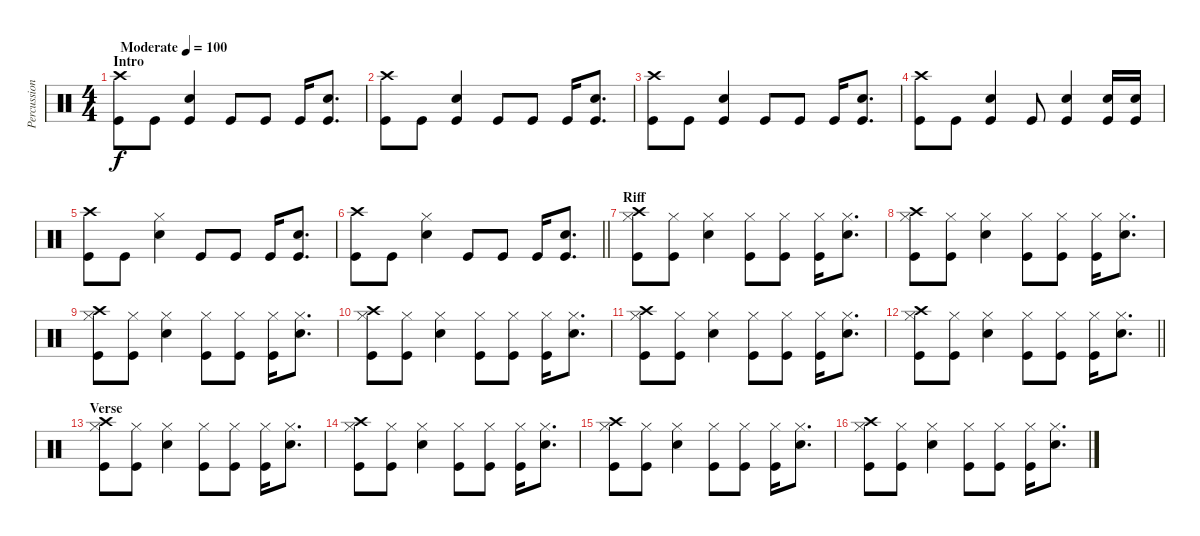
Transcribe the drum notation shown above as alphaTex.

\track ("Percussion" "Percussion") {instrument percussion}
\staff {score}
\articulation defaults
\ts (4 4)
\section ("" "Intro")
\tempo (100 "Moderate")
\clef neutral
\ks c
("Crash high (hit)" "Kick (hit)").8{dy f} "Kick (hit)".8 ("Snare (hit) 2" "Kick (hit)").4 "Kick (hit)".8 "Kick (hit)".8 "Kick (hit)".16 ("Snare (hit) 2" "Kick (hit)").8{d} |
("Crash high (hit)" "Kick (hit)").8 "Kick (hit)".8 ("Snare (hit) 2" "Kick (hit)").4 "Kick (hit)".8 "Kick (hit)".8 "Kick (hit)".16 ("Snare (hit) 2" "Kick (hit)").8{d} |
("Crash high (hit)" "Kick (hit)").8 "Kick (hit)".8 ("Snare (hit) 2" "Kick (hit)").4 "Kick (hit)".8 "Kick (hit)".8 "Kick (hit)".16 ("Snare (hit) 2" "Kick (hit)").8{d} |
("Crash high (hit)" "Kick (hit)").8 "Kick (hit)".8 ("Snare (hit) 2" "Kick (hit)").4 "Kick (hit)".8 ("Snare (hit) 2" "Kick (hit)").4 ("Snare (hit) 2" "Kick (hit)").16 ("Snare (hit) 2" "Kick (hit)").16 |
("Crash high (hit)" "Kick (hit)").8 "Kick (hit)".8 ("Snare (hit) 2" "Hi-Hat (closed)").4 "Kick (hit)".8 "Kick (hit)".8 "Kick (hit)".16 ("Snare (hit) 2" "Kick (hit)").8{d} |
\barLineRight lightlight
("Crash high (hit)" "Kick (hit)").8 "Kick (hit)".8 ("Snare (hit) 2" "Hi-Hat (closed)").4 "Kick (hit)".8 "Kick (hit)".8 "Kick (hit)".16 ("Snare (hit) 2" "Kick (hit)").8{d} |
\section ("" "Riff")
("Crash high (hit)" "Kick (hit)" "Hi-Hat (closed)").8 ("Kick (hit)" "Hi-Hat (closed)").8 ("Snare (hit) 2" "Hi-Hat (closed)").4 ("Kick (hit)" "Hi-Hat (closed)").8 ("Kick (hit)" "Hi-Hat (closed)").8 ("Kick (hit)" "Hi-Hat (closed)").16 ("Snare (hit) 2" "Hi-Hat (closed)").8{d} |
("Crash high (hit)" "Kick (hit)" "Hi-Hat (closed)").8 ("Kick (hit)" "Hi-Hat (closed)").8 ("Snare (hit) 2" "Hi-Hat (closed)").4 ("Kick (hit)" "Hi-Hat (closed)").8 ("Kick (hit)" "Hi-Hat (closed)").8 ("Kick (hit)" "Hi-Hat (closed)").16 ("Snare (hit) 2" "Hi-Hat (closed)").8{d} |
("Crash high (hit)" "Kick (hit)" "Hi-Hat (closed)").8 ("Kick (hit)" "Hi-Hat (closed)").8 ("Snare (hit) 2" "Hi-Hat (closed)").4 ("Kick (hit)" "Hi-Hat (closed)").8 ("Kick (hit)" "Hi-Hat (closed)").8 ("Kick (hit)" "Hi-Hat (closed)").16 ("Snare (hit) 2" "Hi-Hat (closed)").8{d} |
("Crash high (hit)" "Kick (hit)" "Hi-Hat (closed)").8 ("Kick (hit)" "Hi-Hat (closed)").8 ("Snare (hit) 2" "Hi-Hat (closed)").4 ("Kick (hit)" "Hi-Hat (closed)").8 ("Kick (hit)" "Hi-Hat (closed)").8 ("Kick (hit)" "Hi-Hat (closed)").16 ("Snare (hit) 2" "Hi-Hat (closed)").8{d} |
("Crash high (hit)" "Kick (hit)" "Hi-Hat (closed)").8 ("Kick (hit)" "Hi-Hat (closed)").8 ("Snare (hit) 2" "Hi-Hat (closed)").4 ("Kick (hit)" "Hi-Hat (closed)").8 ("Kick (hit)" "Hi-Hat (closed)").8 ("Kick (hit)" "Hi-Hat (closed)").16 ("Snare (hit) 2" "Hi-Hat (closed)").8{d} |
\barLineRight lightlight
("Crash high (hit)" "Kick (hit)" "Hi-Hat (closed)").8 ("Kick (hit)" "Hi-Hat (closed)").8 ("Snare (hit) 2" "Hi-Hat (closed)").4 ("Kick (hit)" "Hi-Hat (closed)").8 ("Kick (hit)" "Hi-Hat (closed)").8 ("Kick (hit)" "Hi-Hat (closed)").16 ("Snare (hit) 2" "Hi-Hat (closed)").8{d} |
\section ("" "Verse")
("Crash high (hit)" "Kick (hit)" "Hi-Hat (closed)").8 ("Kick (hit)" "Hi-Hat (closed)").8 ("Snare (hit) 2" "Hi-Hat (closed)").4 ("Kick (hit)" "Hi-Hat (closed)").8 ("Kick (hit)" "Hi-Hat (closed)").8 ("Kick (hit)" "Hi-Hat (closed)").16 ("Snare (hit) 2" "Hi-Hat (closed)").8{d} |
("Crash high (hit)" "Kick (hit)" "Hi-Hat (closed)").8 ("Kick (hit)" "Hi-Hat (closed)").8 ("Snare (hit) 2" "Hi-Hat (closed)").4 ("Kick (hit)" "Hi-Hat (closed)").8 ("Kick (hit)" "Hi-Hat (closed)").8 ("Kick (hit)" "Hi-Hat (closed)").16 ("Snare (hit) 2" "Hi-Hat (closed)").8{d} |
("Crash high (hit)" "Kick (hit)" "Hi-Hat (closed)").8 ("Kick (hit)" "Hi-Hat (closed)").8 ("Snare (hit) 2" "Hi-Hat (closed)").4 ("Kick (hit)" "Hi-Hat (closed)").8 ("Kick (hit)" "Hi-Hat (closed)").8 ("Kick (hit)" "Hi-Hat (closed)").16 ("Snare (hit) 2" "Hi-Hat (closed)").8{d} |
("Crash high (hit)" "Kick (hit)" "Hi-Hat (closed)").8 ("Kick (hit)" "Hi-Hat (closed)").8 ("Snare (hit) 2" "Hi-Hat (closed)").4 ("Kick (hit)" "Hi-Hat (closed)").8 ("Kick (hit)" "Hi-Hat (closed)").8 ("Kick (hit)" "Hi-Hat (closed)").16 ("Snare (hit) 2" "Hi-Hat (closed)").8{d}
